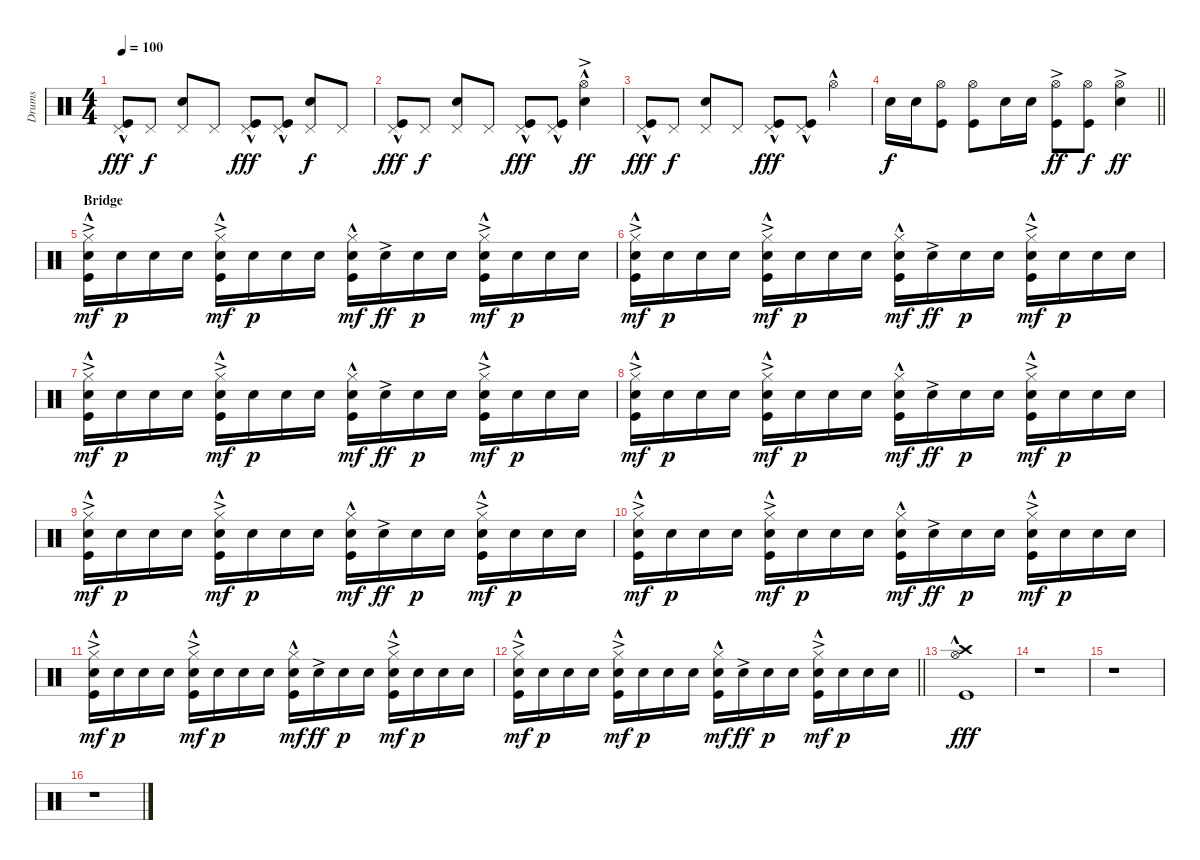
\track ("Drums" "Drums") {instrument percussion}
\staff {score}
\articulation defaults
\ts (4 4)
\tempo 100
\clef neutral
\ks c
("Pedal Hi-Hat (hit)" "Kick (hit)"{hac}).8{dy fff} "Pedal Hi-Hat (hit)".8{dy f} ("Pedal Hi-Hat (hit)" "Snare (hit) 2").8 "Pedal Hi-Hat (hit)".8 ("Pedal Hi-Hat (hit)" "Kick (hit)"{hac}).8{dy fff} ("Pedal Hi-Hat (hit)" "Kick (hit)"{hac}).8 ("Pedal Hi-Hat (hit)" "Snare (hit) 2").8{dy f} "Pedal Hi-Hat (hit)".8 |
("Pedal Hi-Hat (hit)" "Kick (hit)"{hac}).8{dy fff} "Pedal Hi-Hat (hit)".8{dy f} ("Pedal Hi-Hat (hit)" "Snare (hit) 2").8 "Pedal Hi-Hat (hit)".8 ("Pedal Hi-Hat (hit)" "Kick (hit)"{hac}).8{dy fff} ("Pedal Hi-Hat (hit)" "Kick (hit)"{hac}).8 ("Hi-Hat (open)"{hac} "Snare (hit) 2"{ac}).4{dy ff} |
("Pedal Hi-Hat (hit)" "Kick (hit)"{hac}).8{dy fff} "Pedal Hi-Hat (hit)".8{dy f} ("Pedal Hi-Hat (hit)" "Snare (hit) 2").8 "Pedal Hi-Hat (hit)".8 ("Pedal Hi-Hat (hit)" "Kick (hit)"{hac}).8{dy fff} ("Pedal Hi-Hat (hit)" "Kick (hit)"{hac}).8 "Hi-Hat (open)"{hac}.4 |
\barLineRight lightlight "Snare (hit) 2".16{dy f} "Snare (hit) 2".16
("Hi-Hat (open)" "Kick (hit)").8 ("Hi-Hat (open)" "Kick (hit)").8 "Snare (hit) 2".16 "Snare (hit) 2".16 ("Hi-Hat (open)"{ac} "Kick (hit)").8{dy ff} ("Hi-Hat (open)" "Kick (hit)").8{dy f} ("Hi-Hat (open)"{ac} "Snare (hit) 2"{ac}).4{dy ff} |
\section ("" "Bridge")
("Hi-Hat (closed)" "Snare (hit) 2"{ac} "Kick (hit)"{hac}).16{dy mf} "Snare (hit) 2".16{dy p} "Snare (hit) 2".16 "Snare (hit) 2".16 ("Hi-Hat (closed)" "Snare (hit) 2"{ac} "Kick (hit)"{hac}).16{dy mf} "Snare (hit) 2".16{dy p} "Snare (hit) 2".16 "Snare (hit) 2".16 ("Hi-Hat (closed)" "Snare (hit) 2" "Kick (hit)"{hac}).16{dy mf} "Snare (hit) 2"{ac}.16{dy ff} "Snare (hit) 2".16{dy p} "Snare (hit) 2".16 ("Hi-Hat (closed)" "Snare (hit) 2"{ac} "Kick (hit)"{hac}).16{dy mf} "Snare (hit) 2".16{dy p} "Snare (hit) 2".16 "Snare (hit) 2".16 |
("Hi-Hat (closed)" "Snare (hit) 2"{ac} "Kick (hit)"{hac}).16{dy mf} "Snare (hit) 2".16{dy p} "Snare (hit) 2".16 "Snare (hit) 2".16 ("Hi-Hat (closed)" "Snare (hit) 2"{ac} "Kick (hit)"{hac}).16{dy mf} "Snare (hit) 2".16{dy p} "Snare (hit) 2".16 "Snare (hit) 2".16 ("Hi-Hat (closed)" "Snare (hit) 2" "Kick (hit)"{hac}).16{dy mf} "Snare (hit) 2"{ac}.16{dy ff} "Snare (hit) 2".16{dy p} "Snare (hit) 2".16 ("Hi-Hat (closed)" "Snare (hit) 2"{ac} "Kick (hit)"{hac}).16{dy mf} "Snare (hit) 2".16{dy p} "Snare (hit) 2".16 "Snare (hit) 2".16 |
("Hi-Hat (closed)" "Snare (hit) 2"{ac} "Kick (hit)"{hac}).16{dy mf} "Snare (hit) 2".16{dy p} "Snare (hit) 2".16 "Snare (hit) 2".16 ("Hi-Hat (closed)" "Snare (hit) 2"{ac} "Kick (hit)"{hac}).16{dy mf} "Snare (hit) 2".16{dy p} "Snare (hit) 2".16 "Snare (hit) 2".16 ("Hi-Hat (closed)" "Snare (hit) 2" "Kick (hit)"{hac}).16{dy mf} "Snare (hit) 2"{ac}.16{dy ff} "Snare (hit) 2".16{dy p} "Snare (hit) 2".16 ("Hi-Hat (closed)" "Snare (hit) 2"{ac} "Kick (hit)"{hac}).16{dy mf} "Snare (hit) 2".16{dy p} "Snare (hit) 2".16 "Snare (hit) 2".16 |
("Hi-Hat (closed)" "Snare (hit) 2"{ac} "Kick (hit)"{hac}).16{dy mf} "Snare (hit) 2".16{dy p} "Snare (hit) 2".16 "Snare (hit) 2".16 ("Hi-Hat (closed)" "Snare (hit) 2"{ac} "Kick (hit)"{hac}).16{dy mf} "Snare (hit) 2".16{dy p} "Snare (hit) 2".16 "Snare (hit) 2".16 ("Hi-Hat (closed)" "Snare (hit) 2" "Kick (hit)"{hac}).16{dy mf} "Snare (hit) 2"{ac}.16{dy ff} "Snare (hit) 2".16{dy p} "Snare (hit) 2".16 ("Hi-Hat (closed)" "Snare (hit) 2"{ac} "Kick (hit)"{hac}).16{dy mf} "Snare (hit) 2".16{dy p} "Snare (hit) 2".16 "Snare (hit) 2".16 |
("Hi-Hat (closed)" "Snare (hit) 2"{ac} "Kick (hit)"{hac}).16{dy mf} "Snare (hit) 2".16{dy p} "Snare (hit) 2".16 "Snare (hit) 2".16 ("Hi-Hat (closed)" "Snare (hit) 2"{ac} "Kick (hit)"{hac}).16{dy mf} "Snare (hit) 2".16{dy p} "Snare (hit) 2".16 "Snare (hit) 2".16 ("Hi-Hat (closed)" "Snare (hit) 2" "Kick (hit)"{hac}).16{dy mf} "Snare (hit) 2"{ac}.16{dy ff} "Snare (hit) 2".16{dy p} "Snare (hit) 2".16 ("Hi-Hat (closed)" "Snare (hit) 2"{ac} "Kick (hit)"{hac}).16{dy mf} "Snare (hit) 2".16{dy p} "Snare (hit) 2".16 "Snare (hit) 2".16 |
("Hi-Hat (closed)" "Snare (hit) 2"{ac} "Kick (hit)"{hac}).16{dy mf} "Snare (hit) 2".16{dy p} "Snare (hit) 2".16 "Snare (hit) 2".16 ("Hi-Hat (closed)" "Snare (hit) 2"{ac} "Kick (hit)"{hac}).16{dy mf} "Snare (hit) 2".16{dy p} "Snare (hit) 2".16 "Snare (hit) 2".16 ("Hi-Hat (closed)" "Snare (hit) 2" "Kick (hit)"{hac}).16{dy mf} "Snare (hit) 2"{ac}.16{dy ff} "Snare (hit) 2".16{dy p} "Snare (hit) 2".16 ("Hi-Hat (closed)" "Snare (hit) 2"{ac} "Kick (hit)"{hac}).16{dy mf} "Snare (hit) 2".16{dy p} "Snare (hit) 2".16 "Snare (hit) 2".16 |
("Hi-Hat (closed)" "Snare (hit) 2"{ac} "Kick (hit)"{hac}).16{dy mf} "Snare (hit) 2".16{dy p} "Snare (hit) 2".16 "Snare (hit) 2".16 ("Hi-Hat (closed)" "Snare (hit) 2"{ac} "Kick (hit)"{hac}).16{dy mf} "Snare (hit) 2".16{dy p} "Snare (hit) 2".16 "Snare (hit) 2".16 ("Hi-Hat (closed)" "Snare (hit) 2" "Kick (hit)"{hac}).16{dy mf} "Snare (hit) 2"{ac}.16{dy ff} "Snare (hit) 2".16{dy p} "Snare (hit) 2".16 ("Hi-Hat (closed)" "Snare (hit) 2"{ac} "Kick (hit)"{hac}).16{dy mf} "Snare (hit) 2".16{dy p} "Snare (hit) 2".16 "Snare (hit) 2".16 |
\barLineRight lightlight
("Hi-Hat (closed)" "Snare (hit) 2"{ac} "Kick (hit)"{hac}).16{dy mf} "Snare (hit) 2".16{dy p} "Snare (hit) 2".16 "Snare (hit) 2".16 ("Hi-Hat (closed)" "Snare (hit) 2"{ac} "Kick (hit)"{hac}).16{dy mf} "Snare (hit) 2".16{dy p} "Snare (hit) 2".16 "Snare (hit) 2".16 ("Hi-Hat (closed)" "Snare (hit) 2" "Kick (hit)"{hac}).16{dy mf} "Snare (hit) 2"{ac}.16{dy ff} "Snare (hit) 2".16{dy p} "Snare (hit) 2".16 ("Hi-Hat (closed)" "Snare (hit) 2"{ac} "Kick (hit)"{hac}).16{dy mf} "Snare (hit) 2".16{dy p} "Snare (hit) 2".16 "Snare (hit) 2".16 |
("Crash high (hit)"{hac} "Hi-Hat (open)"{hac} "Kick (hit)"{hac}).1{dy fff} |
r.1 |
r.1 |
r.1
